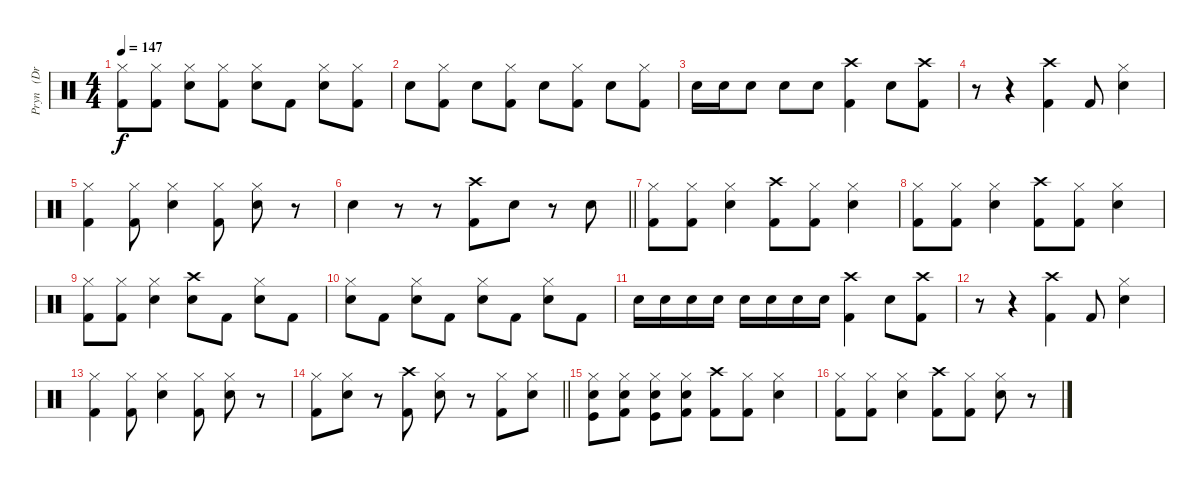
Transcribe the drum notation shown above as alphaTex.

\track ("Pryn   (Drums)" "Pryn   (Dr") {instrument percussion}
\staff {score}
\articulation defaults
\ts (4 4)
\tempo 147
\clef neutral
\ks c
("Kick (hit) 2" "Hi-Hat (closed)").8{dy f} ("Kick (hit) 2" "Hi-Hat (closed)").8 ("Electric Snare (hit)" "Hi-Hat (closed)").8 ("Kick (hit) 2" "Hi-Hat (closed)").8 ("Electric Snare (hit)" "Hi-Hat (closed)").8 "Kick (hit) 2".8 ("Electric Snare (hit)" "Hi-Hat (closed)").8 ("Kick (hit) 2" "Hi-Hat (closed)").8 |
"Electric Snare (hit)".8 ("Kick (hit) 2" "Hi-Hat (closed)").8 "Electric Snare (hit)".8 ("Kick (hit) 2" "Hi-Hat (closed)").8 "Electric Snare (hit)".8 ("Kick (hit) 2" "Hi-Hat (closed)").8 "Electric Snare (hit)".8 ("Kick (hit) 2" "Hi-Hat (closed)").8 |
"Electric Snare (hit)".16 "Electric Snare (hit)".16 "Electric Snare (hit)".8 "Electric Snare (hit)".8 "Electric Snare (hit)".8 ("Crash high (hit)" "Kick (hit) 2").4 "Electric Snare (hit)".8 ("Kick (hit) 2" "Crash high (hit)").8 |
r.8 r.4 ("Kick (hit) 2" "Crash high (hit)").4 "Kick (hit) 2".8 ("Electric Snare (hit)" "Hi-Hat (closed)").4 |
("Kick (hit) 2" "Hi-Hat (closed)").4 ("Hi-Hat (closed)" "Kick (hit) 2").8 ("Electric Snare (hit)" "Hi-Hat (closed)").4 ("Hi-Hat (closed)" "Kick (hit) 2").8 ("Hi-Hat (closed)" "Electric Snare (hit)").8 r.8 |
\barLineRight lightlight "Electric Snare (hit)".4
r.8 r.8 ("Crash high (hit)" "Kick (hit) 2").8 "Electric Snare (hit)".8 r.8 "Electric Snare (hit)".8 |
("Kick (hit) 2" "Hi-Hat (closed)").8 ("Hi-Hat (closed)" "Kick (hit) 2").8 ("Electric Snare (hit)" "Hi-Hat (closed)").4 ("Kick (hit) 2" "Crash high (hit)").8 ("Hi-Hat (closed)" "Kick (hit) 2").8 ("Electric Snare (hit)" "Hi-Hat (closed)").4 |
("Kick (hit) 2" "Hi-Hat (closed)").8 ("Hi-Hat (closed)" "Kick (hit) 2").8 ("Electric Snare (hit)" "Hi-Hat (closed)").4 ("Kick (hit) 2" "Crash high (hit)").8 ("Hi-Hat (closed)" "Kick (hit) 2").8 ("Electric Snare (hit)" "Hi-Hat (closed)").4 |
("Kick (hit) 2" "Hi-Hat (closed)").8 ("Hi-Hat (closed)" "Kick (hit) 2").8 ("Electric Snare (hit)" "Hi-Hat (closed)").4 ("Electric Snare (hit)" "Crash high (hit)").8 "Kick (hit) 2".8 ("Hi-Hat (closed)" "Electric Snare (hit)").8 "Kick (hit) 2".8 |
("Electric Snare (hit)" "Hi-Hat (closed)").8 "Kick (hit) 2".8 ("Hi-Hat (closed)" "Electric Snare (hit)").8 "Kick (hit) 2".8 ("Electric Snare (hit)" "Hi-Hat (closed)").8 "Kick (hit) 2".8 ("Hi-Hat (closed)" "Electric Snare (hit)").8 "Kick (hit) 2".8 |
"Electric Snare (hit)".16 "Electric Snare (hit)".16 "Electric Snare (hit)".16 "Electric Snare (hit)".16 "Electric Snare (hit)".16 "Electric Snare (hit)".16 "Electric Snare (hit)".16 "Electric Snare (hit)".16 ("Crash high (hit)" "Kick (hit) 2").4 "Electric Snare (hit)".8 ("Kick (hit) 2" "Crash high (hit)").8 |
r.8 r.4 ("Kick (hit) 2" "Crash high (hit)").4 "Kick (hit) 2".8 ("Electric Snare (hit)" "Hi-Hat (closed)").4 |
("Kick (hit) 2" "Hi-Hat (closed)").4 ("Hi-Hat (closed)" "Kick (hit) 2").8 ("Electric Snare (hit)" "Hi-Hat (closed)").4 ("Hi-Hat (closed)" "Kick (hit) 2").8 ("Hi-Hat (closed)" "Electric Snare (hit)").8 r.8 |
\barLineRight lightlight
("Kick (hit) 2" "Hi-Hat (closed)").8 ("Electric Snare (hit)" "Hi-Hat (closed)").8 r.8 ("Kick (hit) 2" "Crash high (hit)").8 ("Electric Snare (hit)" "Hi-Hat (closed)").8 r.8 ("Kick (hit) 2" "Hi-Hat (closed)").8 ("Electric Snare (hit)" "Hi-Hat (closed)").8 |
("Kick (hit)" "Electric Snare (hit)" "Hi-Hat (closed)").8 ("Kick (hit) 2" "Electric Snare (hit)" "Hi-Hat (closed)").8 ("Kick (hit)" "Electric Snare (hit)" "Hi-Hat (closed)").8 ("Kick (hit) 2" "Electric Snare (hit)" "Hi-Hat (closed)").8 ("Kick (hit) 2" "Crash high (hit)").8 ("Kick (hit) 2" "Hi-Hat (closed)").8 ("Electric Snare (hit)" "Hi-Hat (closed)").4 |
("Kick (hit) 2" "Hi-Hat (closed)").8 ("Kick (hit) 2" "Hi-Hat (closed)").8 ("Electric Snare (hit)" "Hi-Hat (closed)").4 ("Kick (hit) 2" "Crash high (hit)").8 ("Kick (hit) 2" "Hi-Hat (closed)").8 ("Electric Snare (hit)" "Hi-Hat (closed)").8 r.8
